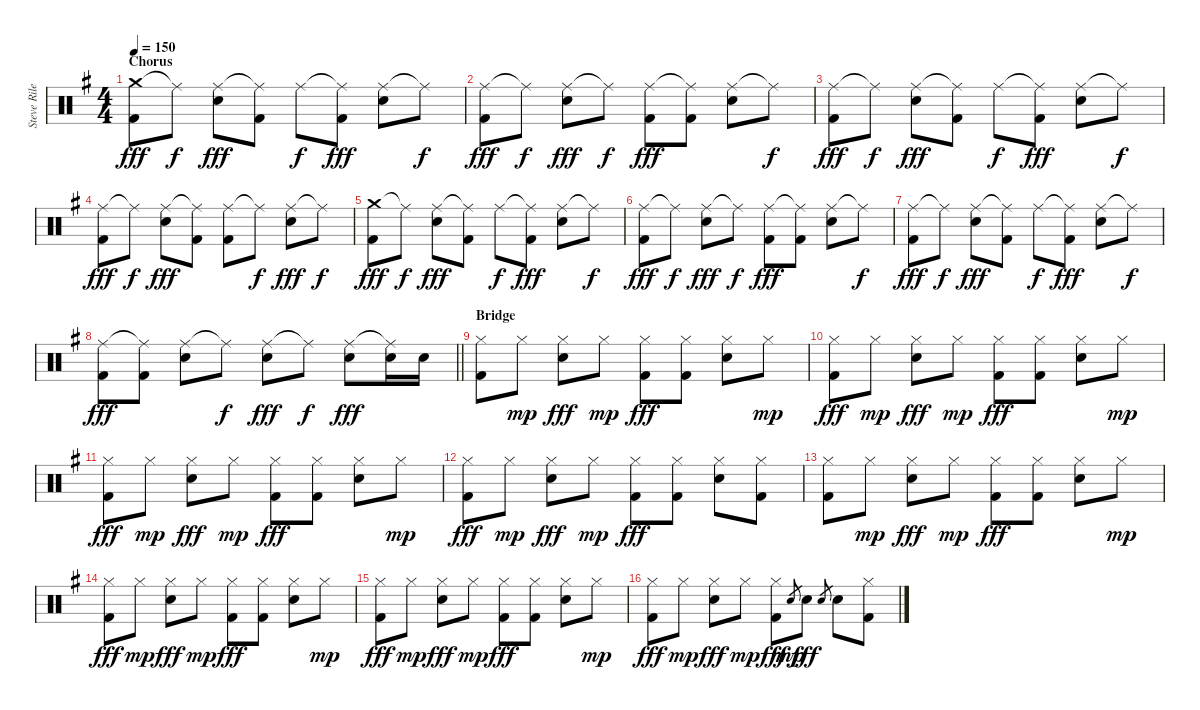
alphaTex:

\track ("Steve Riley - Drums" "Steve Rile") {instrument percussion}
\staff {score}
\articulation defaults
\ts (4 4)
\section ("" "Chorus")
\tempo 150
\clef neutral
\ks g
("Crash medium (hit)" "Kick (hit) 2").8{dy fff} "Ride (middle)"{t}.8{dy f} ("Ride (middle)" "Electric Snare (hit)").8{dy fff} ("Ride (middle)"{t} "Kick (hit) 2").8 "Ride (middle)".8{dy f} ("Ride (middle)"{t} "Kick (hit) 2").8{dy fff} ("Ride (middle)" "Electric Snare (hit)").8 "Ride (middle)"{t}.8{dy f} |
("Ride (middle)" "Kick (hit) 2").8{dy fff} "Ride (middle)"{t}.8{dy f} ("Ride (middle)" "Electric Snare (hit)").8{dy fff} "Ride (middle)"{t}.8{dy f} ("Ride (middle)" "Kick (hit) 2").8{dy fff} ("Ride (middle)"{t} "Kick (hit) 2").8 ("Ride (middle)" "Electric Snare (hit)").8 "Ride (middle)"{t}.8{dy f} |
("Ride (middle)" "Kick (hit) 2").8{dy fff} "Ride (middle)"{t}.8{dy f} ("Ride (middle)" "Electric Snare (hit)").8{dy fff} ("Ride (middle)"{t} "Kick (hit) 2").8 "Ride (middle)".8{dy f} ("Ride (middle)"{t} "Kick (hit) 2").8{dy fff} ("Ride (middle)" "Electric Snare (hit)").8 "Ride (middle)"{t}.8{dy f} |
("Ride (middle)" "Kick (hit) 2").8{dy fff} "Ride (middle)"{t}.8{dy f} ("Ride (middle)" "Electric Snare (hit)").8{dy fff} ("Ride (middle)"{t} "Kick (hit) 2").8 ("Ride (middle)" "Kick (hit) 2").8 "Ride (middle)"{t}.8{dy f} ("Ride (middle)" "Electric Snare (hit)").8{dy fff} "Ride (middle)"{t}.8{dy f} |
("Crash medium (hit)" "Kick (hit) 2").8{dy fff} "Ride (middle)"{t}.8{dy f} ("Ride (middle)" "Electric Snare (hit)").8{dy fff} ("Ride (middle)"{t} "Kick (hit) 2").8 "Ride (middle)".8{dy f} ("Ride (middle)"{t} "Kick (hit) 2").8{dy fff} ("Ride (middle)" "Electric Snare (hit)").8 "Ride (middle)"{t}.8{dy f} |
("Ride (middle)" "Kick (hit) 2").8{dy fff} "Ride (middle)"{t}.8{dy f} ("Ride (middle)" "Electric Snare (hit)").8{dy fff} "Ride (middle)"{t}.8{dy f} ("Ride (middle)" "Kick (hit) 2").8{dy fff} ("Ride (middle)"{t} "Kick (hit) 2").8 ("Ride (middle)" "Electric Snare (hit)").8 "Ride (middle)"{t}.8{dy f} |
("Ride (middle)" "Kick (hit) 2").8{dy fff} "Ride (middle)"{t}.8{dy f} ("Ride (middle)" "Electric Snare (hit)").8{dy fff} ("Ride (middle)"{t} "Kick (hit) 2").8 "Ride (middle)".8{dy f} ("Ride (middle)"{t} "Kick (hit) 2").8{dy fff} ("Ride (middle)" "Electric Snare (hit)").8 "Ride (middle)"{t}.8{dy f} |
\barLineRight lightlight
("Ride (middle)" "Kick (hit) 2").8{dy fff} ("Ride (middle)"{t} "Kick (hit) 2").8 ("Ride (middle)" "Electric Snare (hit)").8 "Ride (middle)"{t}.8{dy f} ("Ride (middle)" "Electric Snare (hit)").8{dy fff} "Ride (middle)"{t}.8{dy f} ("Ride (middle)" "Electric Snare (hit)").8{dy fff} ("Ride (middle)"{t} "Electric Snare (hit)").16 "Electric Snare (hit)".16 |
\section ("" "Bridge")
("Hi-Hat (closed)" "Kick (hit) 2").8 "Hi-Hat (closed)".8{dy mp} ("Hi-Hat (closed)" "Electric Snare (hit)").8{dy fff} "Hi-Hat (closed)".8{dy mp} ("Hi-Hat (closed)" "Kick (hit) 2").8{dy fff} ("Hi-Hat (closed)" "Kick (hit) 2").8 ("Hi-Hat (closed)" "Electric Snare (hit)").8 "Hi-Hat (closed)".8{dy mp} |
("Hi-Hat (closed)" "Kick (hit) 2").8{dy fff} "Hi-Hat (closed)".8{dy mp} ("Hi-Hat (closed)" "Electric Snare (hit)").8{dy fff} "Hi-Hat (closed)".8{dy mp} ("Hi-Hat (closed)" "Kick (hit) 2").8{dy fff} ("Hi-Hat (closed)" "Kick (hit) 2").8 ("Hi-Hat (closed)" "Electric Snare (hit)").8 "Hi-Hat (closed)".8{dy mp} |
("Hi-Hat (closed)" "Kick (hit) 2").8{dy fff} "Hi-Hat (closed)".8{dy mp} ("Hi-Hat (closed)" "Electric Snare (hit)").8{dy fff} "Hi-Hat (closed)".8{dy mp} ("Hi-Hat (closed)" "Kick (hit) 2").8{dy fff} ("Hi-Hat (closed)" "Kick (hit) 2").8 ("Hi-Hat (closed)" "Electric Snare (hit)").8 "Hi-Hat (closed)".8{dy mp} |
("Hi-Hat (closed)" "Kick (hit) 2").8{dy fff} "Hi-Hat (closed)".8{dy mp} ("Hi-Hat (closed)" "Electric Snare (hit)").8{dy fff} "Hi-Hat (closed)".8{dy mp} ("Hi-Hat (closed)" "Kick (hit) 2").8{dy fff} ("Hi-Hat (closed)" "Kick (hit) 2").8 ("Hi-Hat (closed)" "Electric Snare (hit)").8 ("Hi-Hat (closed)" "Kick (hit) 2").8 |
("Hi-Hat (closed)" "Kick (hit) 2").8 "Hi-Hat (closed)".8{dy mp} ("Hi-Hat (closed)" "Electric Snare (hit)").8{dy fff} "Hi-Hat (closed)".8{dy mp} ("Hi-Hat (closed)" "Kick (hit) 2").8{dy fff} ("Hi-Hat (closed)" "Kick (hit) 2").8 ("Hi-Hat (closed)" "Electric Snare (hit)").8 "Hi-Hat (closed)".8{dy mp} |
("Hi-Hat (closed)" "Kick (hit) 2").8{dy fff} "Hi-Hat (closed)".8{dy mp} ("Hi-Hat (closed)" "Electric Snare (hit)").8{dy fff} "Hi-Hat (closed)".8{dy mp} ("Hi-Hat (closed)" "Kick (hit) 2").8{dy fff} ("Hi-Hat (closed)" "Kick (hit) 2").8 ("Hi-Hat (closed)" "Electric Snare (hit)").8 "Hi-Hat (closed)".8{dy mp} |
("Hi-Hat (closed)" "Kick (hit) 2").8{dy fff} "Hi-Hat (closed)".8{dy mp} ("Hi-Hat (closed)" "Electric Snare (hit)").8{dy fff} "Hi-Hat (closed)".8{dy mp} ("Hi-Hat (closed)" "Kick (hit) 2").8{dy fff} ("Hi-Hat (closed)" "Kick (hit) 2").8 ("Hi-Hat (closed)" "Electric Snare (hit)").8 "Hi-Hat (closed)".8{dy mp} |
("Hi-Hat (closed)" "Kick (hit) 2").8{dy fff} "Hi-Hat (closed)".8{dy mp} ("Hi-Hat (closed)" "Electric Snare (hit)").8{dy fff} "Hi-Hat (closed)".8{dy mp} ("Hi-Hat (closed)" "Kick (hit) 2").8{dy fff} "Electric Snare (hit)".8{gr dy mp} "Electric Snare (hit)".8{dy fff} "Electric Snare (hit)".8{gr} "Electric Snare (hit)".8 ("Hi-Hat (closed)" "Kick (hit) 2").8
